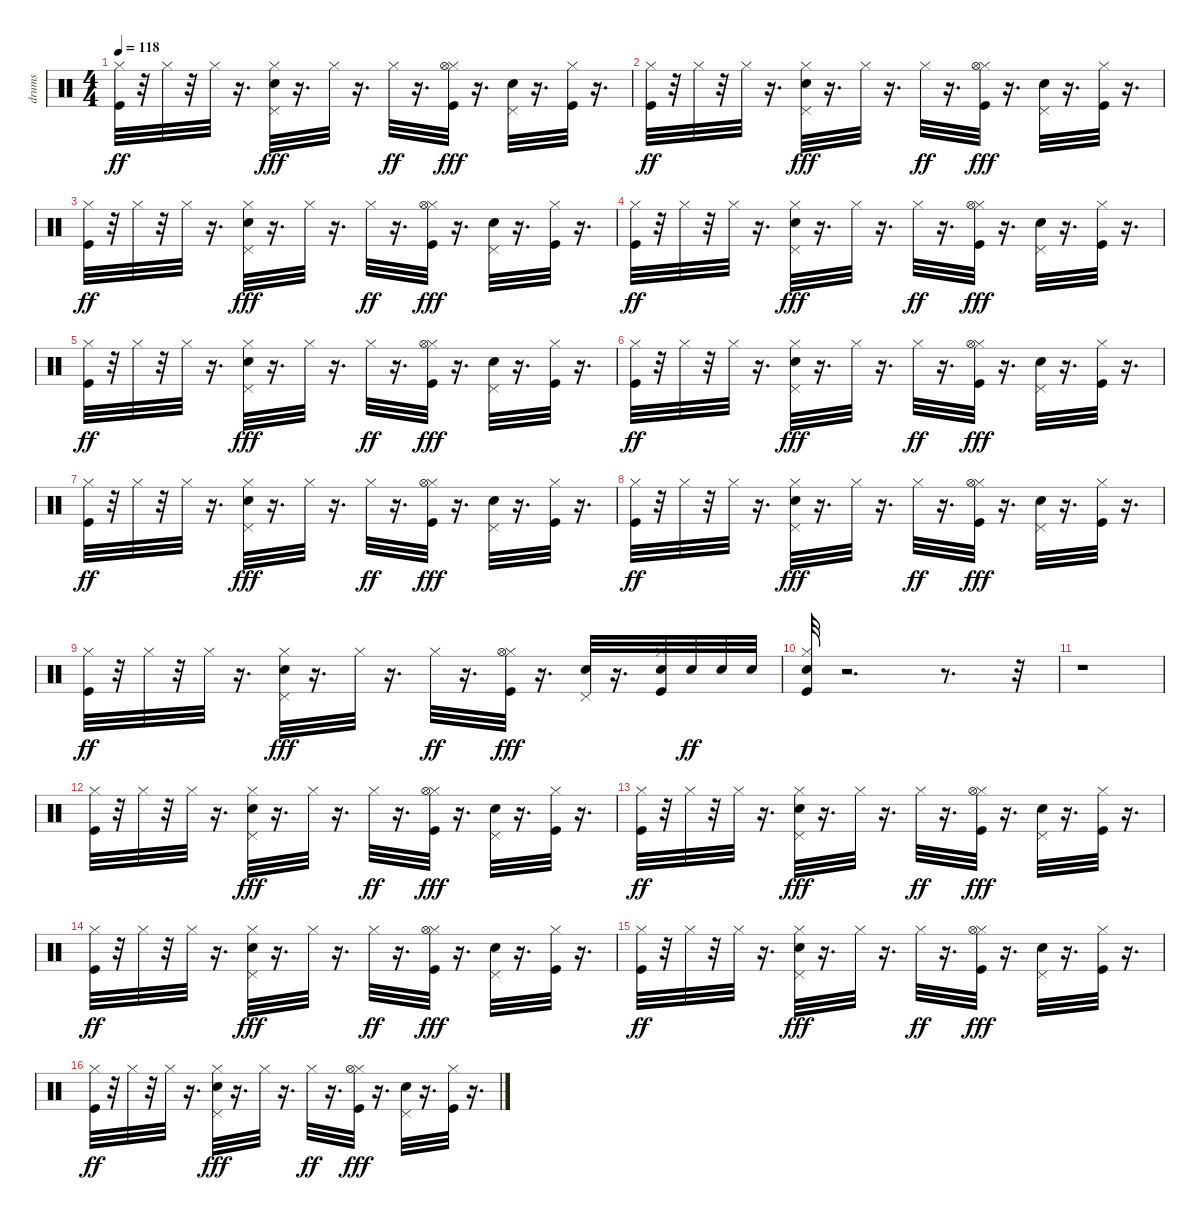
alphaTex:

\track ("drums   " "drums   ") {instrument percussion}
\staff {score}
\articulation defaults
\ts (4 4)
\tempo 118
\clef neutral
\ks c
("Kick (hit)" "Hi-Hat (closed)").32{dy ff} r.32 "Hi-Hat (closed)".32 r.32 "Hi-Hat (closed)".32 r.16{d} ("Electric Snare (hit)" "Hi-Hat (closed)" "Pedal Hi-Hat (hit)").32{dy fff} r.16{d} "Hi-Hat (closed)".32 r.16{d} "Hi-Hat (closed)".32{dy ff} r.16{d} ("Kick (hit)" "Hi-Hat (closed)" "Hi-Hat (open)").32{dy fff} r.16{d} ("Electric Snare (hit)" "Pedal Hi-Hat (hit)").32 r.16{d} ("Kick (hit)" "Hi-Hat (closed)").32 r.16{d} |
("Kick (hit)" "Hi-Hat (closed)").32{dy ff} r.32 "Hi-Hat (closed)".32 r.32 "Hi-Hat (closed)".32 r.16{d} ("Electric Snare (hit)" "Hi-Hat (closed)" "Pedal Hi-Hat (hit)").32{dy fff} r.16{d} "Hi-Hat (closed)".32 r.16{d} "Hi-Hat (closed)".32{dy ff} r.16{d} ("Kick (hit)" "Hi-Hat (closed)" "Hi-Hat (open)").32{dy fff} r.16{d} ("Electric Snare (hit)" "Pedal Hi-Hat (hit)").32 r.16{d} ("Kick (hit)" "Hi-Hat (closed)").32 r.16{d} |
("Kick (hit)" "Hi-Hat (closed)").32{dy ff} r.32 "Hi-Hat (closed)".32 r.32 "Hi-Hat (closed)".32 r.16{d} ("Electric Snare (hit)" "Hi-Hat (closed)" "Pedal Hi-Hat (hit)").32{dy fff} r.16{d} "Hi-Hat (closed)".32 r.16{d} "Hi-Hat (closed)".32{dy ff} r.16{d} ("Kick (hit)" "Hi-Hat (closed)" "Hi-Hat (open)").32{dy fff} r.16{d} ("Electric Snare (hit)" "Pedal Hi-Hat (hit)").32 r.16{d} ("Kick (hit)" "Hi-Hat (closed)").32 r.16{d} |
("Kick (hit)" "Hi-Hat (closed)").32{dy ff} r.32 "Hi-Hat (closed)".32 r.32 "Hi-Hat (closed)".32 r.16{d} ("Electric Snare (hit)" "Hi-Hat (closed)" "Pedal Hi-Hat (hit)").32{dy fff} r.16{d} "Hi-Hat (closed)".32 r.16{d} "Hi-Hat (closed)".32{dy ff} r.16{d} ("Kick (hit)" "Hi-Hat (closed)" "Hi-Hat (open)").32{dy fff} r.16{d} ("Electric Snare (hit)" "Pedal Hi-Hat (hit)").32 r.16{d} ("Kick (hit)" "Hi-Hat (closed)").32 r.16{d} |
("Kick (hit)" "Hi-Hat (closed)").32{dy ff} r.32 "Hi-Hat (closed)".32 r.32 "Hi-Hat (closed)".32 r.16{d} ("Electric Snare (hit)" "Hi-Hat (closed)" "Pedal Hi-Hat (hit)").32{dy fff} r.16{d} "Hi-Hat (closed)".32 r.16{d} "Hi-Hat (closed)".32{dy ff} r.16{d} ("Kick (hit)" "Hi-Hat (closed)" "Hi-Hat (open)").32{dy fff} r.16{d} ("Electric Snare (hit)" "Pedal Hi-Hat (hit)").32 r.16{d} ("Kick (hit)" "Hi-Hat (closed)").32 r.16{d} |
("Kick (hit)" "Hi-Hat (closed)").32{dy ff} r.32 "Hi-Hat (closed)".32 r.32 "Hi-Hat (closed)".32 r.16{d} ("Electric Snare (hit)" "Hi-Hat (closed)" "Pedal Hi-Hat (hit)").32{dy fff} r.16{d} "Hi-Hat (closed)".32 r.16{d} "Hi-Hat (closed)".32{dy ff} r.16{d} ("Kick (hit)" "Hi-Hat (closed)" "Hi-Hat (open)").32{dy fff} r.16{d} ("Electric Snare (hit)" "Pedal Hi-Hat (hit)").32 r.16{d} ("Kick (hit)" "Hi-Hat (closed)").32 r.16{d} |
("Kick (hit)" "Hi-Hat (closed)").32{dy ff} r.32 "Hi-Hat (closed)".32 r.32 "Hi-Hat (closed)".32 r.16{d} ("Electric Snare (hit)" "Hi-Hat (closed)" "Pedal Hi-Hat (hit)").32{dy fff} r.16{d} "Hi-Hat (closed)".32 r.16{d} "Hi-Hat (closed)".32{dy ff} r.16{d} ("Kick (hit)" "Hi-Hat (closed)" "Hi-Hat (open)").32{dy fff} r.16{d} ("Electric Snare (hit)" "Pedal Hi-Hat (hit)").32 r.16{d} ("Kick (hit)" "Hi-Hat (closed)").32 r.16{d} |
("Kick (hit)" "Hi-Hat (closed)").32{dy ff} r.32 "Hi-Hat (closed)".32 r.32 "Hi-Hat (closed)".32 r.16{d} ("Electric Snare (hit)" "Hi-Hat (closed)" "Pedal Hi-Hat (hit)").32{dy fff} r.16{d} "Hi-Hat (closed)".32 r.16{d} "Hi-Hat (closed)".32{dy ff} r.16{d} ("Kick (hit)" "Hi-Hat (closed)" "Hi-Hat (open)").32{dy fff} r.16{d} ("Electric Snare (hit)" "Pedal Hi-Hat (hit)").32 r.16{d} ("Kick (hit)" "Hi-Hat (closed)").32 r.16{d} |
("Kick (hit)" "Hi-Hat (closed)").32{dy ff} r.32 "Hi-Hat (closed)".32 r.32 "Hi-Hat (closed)".32 r.16{d} ("Electric Snare (hit)" "Hi-Hat (closed)" "Pedal Hi-Hat (hit)").32{dy fff} r.16{d} "Hi-Hat (closed)".32 r.16{d} "Hi-Hat (closed)".32{dy ff} r.16{d} ("Kick (hit)" "Hi-Hat (closed)" "Hi-Hat (open)").32{dy fff} r.16{d} ("Electric Snare (hit)" "Pedal Hi-Hat (hit)").32 r.16{d} ("Kick (hit)" "Electric Snare (hit)" "Hi-Hat (closed)").32 "Electric Snare (hit)".32{dy ff} "Electric Snare (hit)".32 "Electric Snare (hit)".32 |
("Kick (hit)" "Electric Snare (hit)" "Hi-Hat (closed)").32 r.2{d} r.8{d} r.32 |
r.1 |
("Kick (hit)" "Hi-Hat (closed)").32 r.32 "Hi-Hat (closed)".32 r.32 "Hi-Hat (closed)".32 r.16{d} ("Electric Snare (hit)" "Hi-Hat (closed)" "Pedal Hi-Hat (hit)").32{dy fff} r.16{d} "Hi-Hat (closed)".32 r.16{d} "Hi-Hat (closed)".32{dy ff} r.16{d} ("Kick (hit)" "Hi-Hat (closed)" "Hi-Hat (open)").32{dy fff} r.16{d} ("Electric Snare (hit)" "Pedal Hi-Hat (hit)").32 r.16{d} ("Kick (hit)" "Hi-Hat (closed)").32 r.16{d} |
("Kick (hit)" "Hi-Hat (closed)").32{dy ff} r.32 "Hi-Hat (closed)".32 r.32 "Hi-Hat (closed)".32 r.16{d} ("Electric Snare (hit)" "Hi-Hat (closed)" "Pedal Hi-Hat (hit)").32{dy fff} r.16{d} "Hi-Hat (closed)".32 r.16{d} "Hi-Hat (closed)".32{dy ff} r.16{d} ("Kick (hit)" "Hi-Hat (closed)" "Hi-Hat (open)").32{dy fff} r.16{d} ("Electric Snare (hit)" "Pedal Hi-Hat (hit)").32 r.16{d} ("Kick (hit)" "Hi-Hat (closed)").32 r.16{d} |
("Kick (hit)" "Hi-Hat (closed)").32{dy ff} r.32 "Hi-Hat (closed)".32 r.32 "Hi-Hat (closed)".32 r.16{d} ("Electric Snare (hit)" "Hi-Hat (closed)" "Pedal Hi-Hat (hit)").32{dy fff} r.16{d} "Hi-Hat (closed)".32 r.16{d} "Hi-Hat (closed)".32{dy ff} r.16{d} ("Kick (hit)" "Hi-Hat (closed)" "Hi-Hat (open)").32{dy fff} r.16{d} ("Electric Snare (hit)" "Pedal Hi-Hat (hit)").32 r.16{d} ("Kick (hit)" "Hi-Hat (closed)").32 r.16{d} |
("Kick (hit)" "Hi-Hat (closed)").32{dy ff} r.32 "Hi-Hat (closed)".32 r.32 "Hi-Hat (closed)".32 r.16{d} ("Electric Snare (hit)" "Hi-Hat (closed)" "Pedal Hi-Hat (hit)").32{dy fff} r.16{d} "Hi-Hat (closed)".32 r.16{d} "Hi-Hat (closed)".32{dy ff} r.16{d} ("Kick (hit)" "Hi-Hat (closed)" "Hi-Hat (open)").32{dy fff} r.16{d} ("Electric Snare (hit)" "Pedal Hi-Hat (hit)").32 r.16{d} ("Kick (hit)" "Hi-Hat (closed)").32 r.16{d} |
("Kick (hit)" "Hi-Hat (closed)").32{dy ff} r.32 "Hi-Hat (closed)".32 r.32 "Hi-Hat (closed)".32 r.16{d} ("Electric Snare (hit)" "Hi-Hat (closed)" "Pedal Hi-Hat (hit)").32{dy fff} r.16{d} "Hi-Hat (closed)".32 r.16{d} "Hi-Hat (closed)".32{dy ff} r.16{d} ("Kick (hit)" "Hi-Hat (closed)" "Hi-Hat (open)").32{dy fff} r.16{d} ("Electric Snare (hit)" "Pedal Hi-Hat (hit)").32 r.16{d} ("Kick (hit)" "Hi-Hat (closed)").32 r.16{d}
